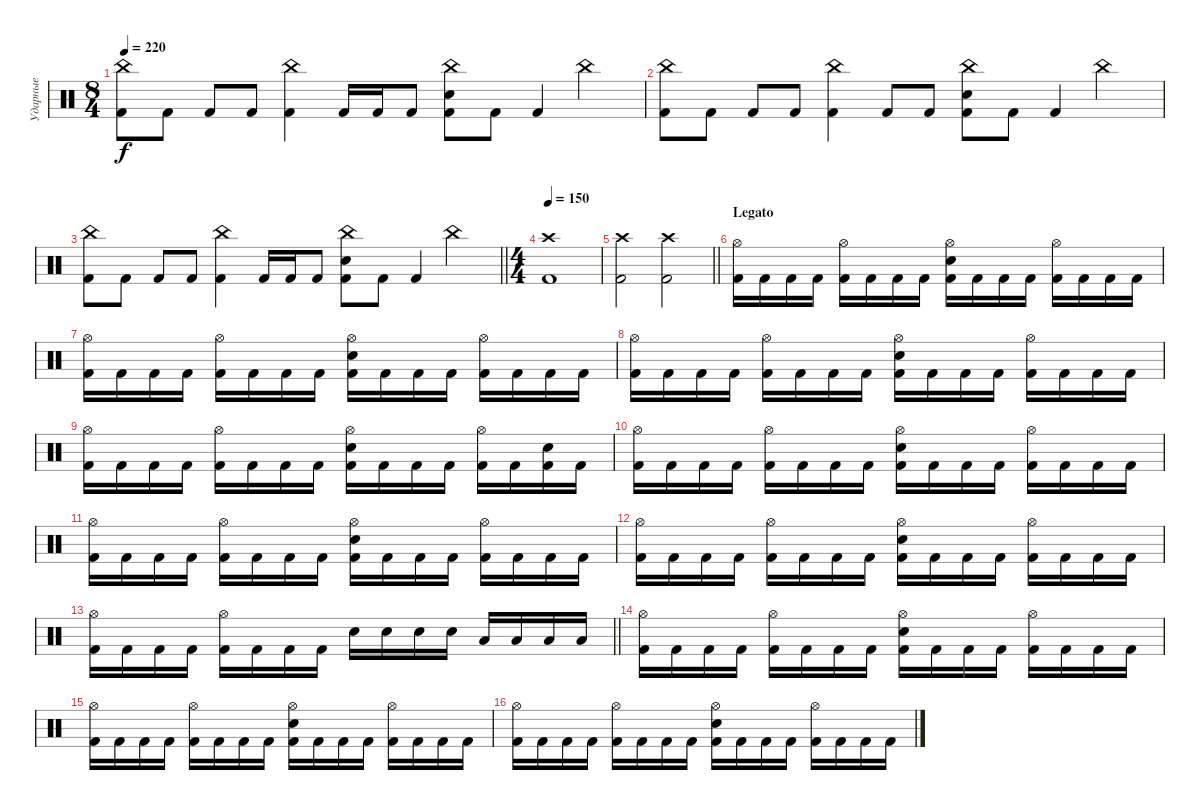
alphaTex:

\track ("Ударные" "Ударные") {instrument percussion}
\staff {score}
\articulation defaults
\ts (8 4)
\tempo 220
\clef neutral
\ks c
("China (hit)" "Kick (hit) 2").8{dy f} "Kick (hit) 2".8 "Kick (hit) 2".8 "Kick (hit) 2".8 ("China (hit)" "Kick (hit) 2").4 "Kick (hit) 2".16 "Kick (hit) 2".16 "Kick (hit) 2".8 ("China (hit)" "Electric Snare (hit)" "Kick (hit) 2").8 "Kick (hit) 2".8 "Kick (hit) 2".4 "China (hit)".2 |
("China (hit)" "Kick (hit) 2").8 "Kick (hit) 2".8 "Kick (hit) 2".8 "Kick (hit) 2".8 ("China (hit)" "Kick (hit) 2").4 "Kick (hit) 2".8 "Kick (hit) 2".8 ("China (hit)" "Electric Snare (hit)" "Kick (hit) 2").8 "Kick (hit) 2".8 "Kick (hit) 2".4 "China (hit)".2 |
\barLineRight lightlight
("China (hit)" "Kick (hit) 2").8 "Kick (hit) 2".8 "Kick (hit) 2".8 "Kick (hit) 2".8 ("China (hit)" "Kick (hit) 2").4 "Kick (hit) 2".16 "Kick (hit) 2".16 "Kick (hit) 2".8 ("China (hit)" "Electric Snare (hit)" "Kick (hit) 2").8 "Kick (hit) 2".8 "Kick (hit) 2".4 "China (hit)".2 |
\ts (4 4)
\tempo 150
("Crash high (hit)" "Kick (hit) 2").1 |
\barLineRight lightlight
("Crash high (hit)" "Kick (hit) 2").2 ("Crash high (hit)" "Kick (hit) 2").2 |
\section ("" "Legato")
("Hi-Hat (open)" "Kick (hit) 2").16 "Kick (hit) 2".16 "Kick (hit) 2".16 "Kick (hit) 2".16 ("Hi-Hat (open)" "Kick (hit) 2").16 "Kick (hit) 2".16 "Kick (hit) 2".16 "Kick (hit) 2".16 ("Hi-Hat (open)" "Electric Snare (hit)" "Kick (hit) 2").16 "Kick (hit) 2".16 "Kick (hit) 2".16 "Kick (hit) 2".16 ("Hi-Hat (open)" "Kick (hit) 2").16 "Kick (hit) 2".16 "Kick (hit) 2".16 "Kick (hit) 2".16 |
("Hi-Hat (open)" "Kick (hit) 2").16 "Kick (hit) 2".16 "Kick (hit) 2".16 "Kick (hit) 2".16 ("Hi-Hat (open)" "Kick (hit) 2").16 "Kick (hit) 2".16 "Kick (hit) 2".16 "Kick (hit) 2".16 ("Hi-Hat (open)" "Electric Snare (hit)" "Kick (hit) 2").16 "Kick (hit) 2".16 "Kick (hit) 2".16 "Kick (hit) 2".16 ("Hi-Hat (open)" "Kick (hit) 2").16 "Kick (hit) 2".16 "Kick (hit) 2".16 "Kick (hit) 2".16 |
("Hi-Hat (open)" "Kick (hit) 2").16 "Kick (hit) 2".16 "Kick (hit) 2".16 "Kick (hit) 2".16 ("Hi-Hat (open)" "Kick (hit) 2").16 "Kick (hit) 2".16 "Kick (hit) 2".16 "Kick (hit) 2".16 ("Hi-Hat (open)" "Electric Snare (hit)" "Kick (hit) 2").16 "Kick (hit) 2".16 "Kick (hit) 2".16 "Kick (hit) 2".16 ("Hi-Hat (open)" "Kick (hit) 2").16 "Kick (hit) 2".16 "Kick (hit) 2".16 "Kick (hit) 2".16 |
("Hi-Hat (open)" "Kick (hit) 2").16 "Kick (hit) 2".16 "Kick (hit) 2".16 "Kick (hit) 2".16 ("Hi-Hat (open)" "Kick (hit) 2").16 "Kick (hit) 2".16 "Kick (hit) 2".16 "Kick (hit) 2".16 ("Hi-Hat (open)" "Electric Snare (hit)" "Kick (hit) 2").16 "Kick (hit) 2".16 "Kick (hit) 2".16 "Kick (hit) 2".16 ("Hi-Hat (open)" "Kick (hit) 2").16 "Kick (hit) 2".16 ("Electric Snare (hit)" "Kick (hit) 2").16 "Kick (hit) 2".16 |
("Hi-Hat (open)" "Kick (hit) 2").16 "Kick (hit) 2".16 "Kick (hit) 2".16 "Kick (hit) 2".16 ("Hi-Hat (open)" "Kick (hit) 2").16 "Kick (hit) 2".16 "Kick (hit) 2".16 "Kick (hit) 2".16 ("Hi-Hat (open)" "Electric Snare (hit)" "Kick (hit) 2").16 "Kick (hit) 2".16 "Kick (hit) 2".16 "Kick (hit) 2".16 ("Hi-Hat (open)" "Kick (hit) 2").16 "Kick (hit) 2".16 "Kick (hit) 2".16 "Kick (hit) 2".16 |
("Hi-Hat (open)" "Kick (hit) 2").16 "Kick (hit) 2".16 "Kick (hit) 2".16 "Kick (hit) 2".16 ("Hi-Hat (open)" "Kick (hit) 2").16 "Kick (hit) 2".16 "Kick (hit) 2".16 "Kick (hit) 2".16 ("Hi-Hat (open)" "Electric Snare (hit)" "Kick (hit) 2").16 "Kick (hit) 2".16 "Kick (hit) 2".16 "Kick (hit) 2".16 ("Hi-Hat (open)" "Kick (hit) 2").16 "Kick (hit) 2".16 "Kick (hit) 2".16 "Kick (hit) 2".16 |
("Hi-Hat (open)" "Kick (hit) 2").16 "Kick (hit) 2".16 "Kick (hit) 2".16 "Kick (hit) 2".16 ("Hi-Hat (open)" "Kick (hit) 2").16 "Kick (hit) 2".16 "Kick (hit) 2".16 "Kick (hit) 2".16 ("Hi-Hat (open)" "Electric Snare (hit)" "Kick (hit) 2").16 "Kick (hit) 2".16 "Kick (hit) 2".16 "Kick (hit) 2".16 ("Hi-Hat (open)" "Kick (hit) 2").16 "Kick (hit) 2".16 "Kick (hit) 2".16 "Kick (hit) 2".16 |
\barLineRight lightlight
("Hi-Hat (open)" "Kick (hit) 2").16 "Kick (hit) 2".16 "Kick (hit) 2".16 "Kick (hit) 2".16 ("Hi-Hat (open)" "Kick (hit) 2").16 "Kick (hit) 2".16 "Kick (hit) 2".16 "Kick (hit) 2".16 "Electric Snare (hit)".16 "Electric Snare (hit)".16 "Electric Snare (hit)".16 "Electric Snare (hit)".16 "Low Tom (hit)".16 "Low Tom (hit)".16 "Low Tom (hit)".16 "Low Tom (hit)".16 |
("Hi-Hat (open)" "Kick (hit) 2").16 "Kick (hit) 2".16 "Kick (hit) 2".16 "Kick (hit) 2".16 ("Hi-Hat (open)" "Kick (hit) 2").16 "Kick (hit) 2".16 "Kick (hit) 2".16 "Kick (hit) 2".16 ("Hi-Hat (open)" "Electric Snare (hit)" "Kick (hit) 2").16 "Kick (hit) 2".16 "Kick (hit) 2".16 "Kick (hit) 2".16 ("Hi-Hat (open)" "Kick (hit) 2").16 "Kick (hit) 2".16 "Kick (hit) 2".16 "Kick (hit) 2".16 |
("Hi-Hat (open)" "Kick (hit) 2").16 "Kick (hit) 2".16 "Kick (hit) 2".16 "Kick (hit) 2".16 ("Hi-Hat (open)" "Kick (hit) 2").16 "Kick (hit) 2".16 "Kick (hit) 2".16 "Kick (hit) 2".16 ("Hi-Hat (open)" "Electric Snare (hit)" "Kick (hit) 2").16 "Kick (hit) 2".16 "Kick (hit) 2".16 "Kick (hit) 2".16 ("Hi-Hat (open)" "Kick (hit) 2").16 "Kick (hit) 2".16 "Kick (hit) 2".16 "Kick (hit) 2".16 |
("Hi-Hat (open)" "Kick (hit) 2").16 "Kick (hit) 2".16 "Kick (hit) 2".16 "Kick (hit) 2".16 ("Hi-Hat (open)" "Kick (hit) 2").16 "Kick (hit) 2".16 "Kick (hit) 2".16 "Kick (hit) 2".16 ("Hi-Hat (open)" "Electric Snare (hit)" "Kick (hit) 2").16 "Kick (hit) 2".16 "Kick (hit) 2".16 "Kick (hit) 2".16 ("Hi-Hat (open)" "Kick (hit) 2").16 "Kick (hit) 2".16 "Kick (hit) 2".16 "Kick (hit) 2".16
